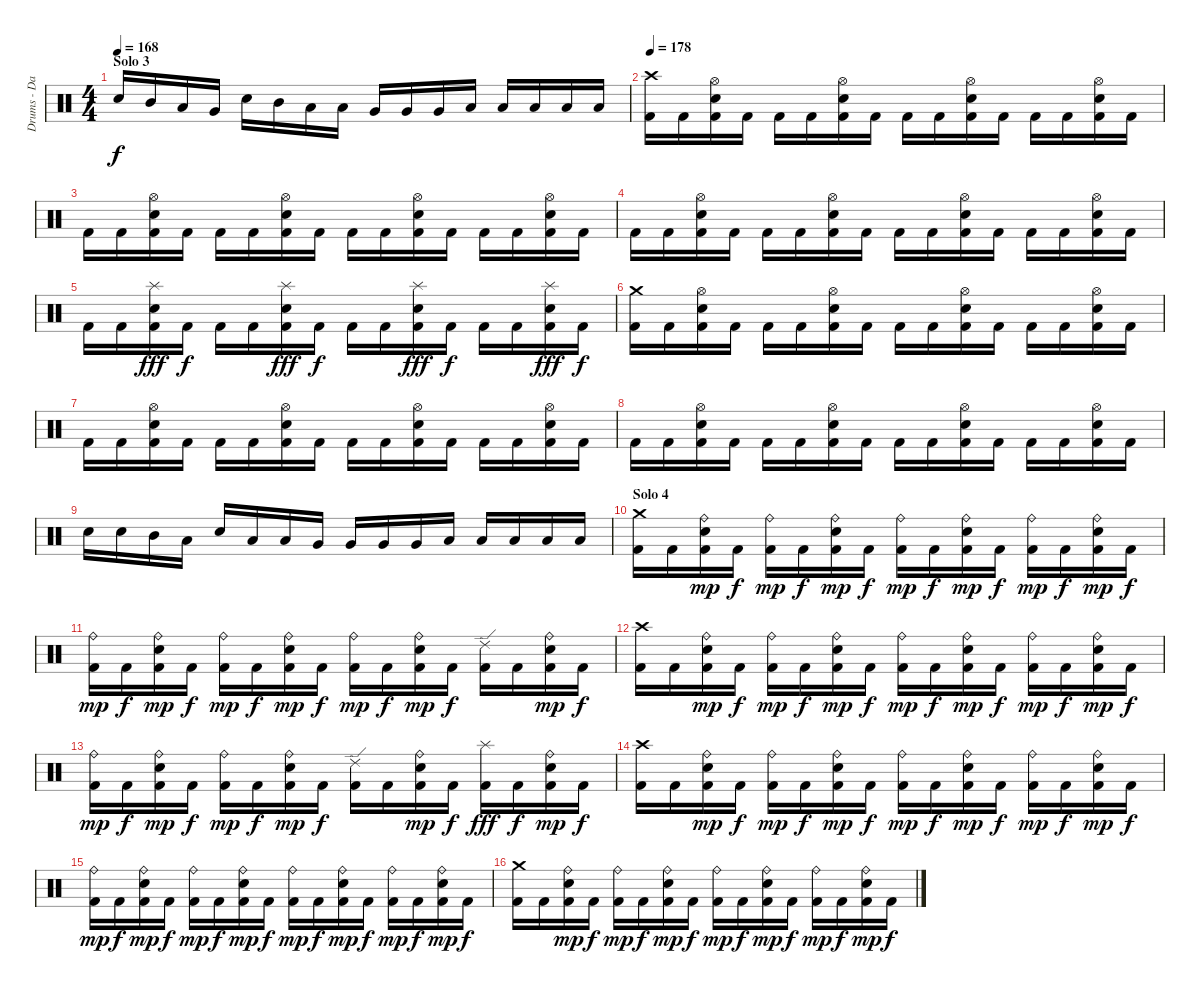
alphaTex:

\track ("Drums - Daniel Zimmermann" "Drums - Da") {instrument percussion}
\staff {score}
\articulation defaults
\ts (4 4)
\section ("" "Solo 3")
\tempo 168
\clef neutral
\ks c "Electric Snare (hit)".16{dy f} "Mid Tom (hit)".16 "Low Tom (hit)".16 "Very Low Tom (hit)".16 "Electric Snare (hit)".16 "Mid Tom (hit)".16 "Low Tom (hit)".16 "Low Tom (hit)".16 "Very Low Tom (hit)".16 "Very Low Tom (hit)".16 "Very Low Tom (hit)".16 "Low Floor Tom (hit)".16 "Low Floor Tom (hit)".16 "Low Floor Tom (hit)".16 "Low Floor Tom (hit)".16 "Low Floor Tom (hit)".16
|
\tempo 178
("Kick (hit) 2" "Crash high (hit)").16 "Kick (hit) 2".16 ("Kick (hit) 2" "Electric Snare (hit)" "Hi-Hat (open)").16 "Kick (hit) 2".16 "Kick (hit) 2".16 "Kick (hit) 2".16 ("Kick (hit) 2" "Electric Snare (hit)" "Hi-Hat (open)").16 "Kick (hit) 2".16 "Kick (hit) 2".16 "Kick (hit) 2".16 ("Kick (hit) 2" "Electric Snare (hit)" "Hi-Hat (open)").16 "Kick (hit) 2".16 "Kick (hit) 2".16 "Kick (hit) 2".16 ("Kick (hit) 2" "Electric Snare (hit)" "Hi-Hat (open)").16 "Kick (hit) 2".16 |
"Kick (hit) 2".16 "Kick (hit) 2".16 ("Kick (hit) 2" "Electric Snare (hit)" "Hi-Hat (open)").16 "Kick (hit) 2".16 "Kick (hit) 2".16 "Kick (hit) 2".16 ("Kick (hit) 2" "Electric Snare (hit)" "Hi-Hat (open)").16 "Kick (hit) 2".16 "Kick (hit) 2".16 "Kick (hit) 2".16 ("Kick (hit) 2" "Electric Snare (hit)" "Hi-Hat (open)").16 "Kick (hit) 2".16 "Kick (hit) 2".16 "Kick (hit) 2".16 ("Kick (hit) 2" "Electric Snare (hit)" "Hi-Hat (open)").16 "Kick (hit) 2".16 |
"Kick (hit) 2".16 "Kick (hit) 2".16 ("Kick (hit) 2" "Electric Snare (hit)" "Hi-Hat (open)").16 "Kick (hit) 2".16 "Kick (hit) 2".16 "Kick (hit) 2".16 ("Kick (hit) 2" "Electric Snare (hit)" "Hi-Hat (open)").16 "Kick (hit) 2".16 "Kick (hit) 2".16 "Kick (hit) 2".16 ("Kick (hit) 2" "Electric Snare (hit)" "Hi-Hat (open)").16 "Kick (hit) 2".16 "Kick (hit) 2".16 "Kick (hit) 2".16 ("Kick (hit) 2" "Electric Snare (hit)" "Hi-Hat (open)").16 "Kick (hit) 2".16 |
"Kick (hit) 2".16 "Kick (hit) 2".16 ("Kick (hit) 2" "Electric Snare (hit)" "Splash (hit)").16{dy fff} "Kick (hit) 2".16{dy f} "Kick (hit) 2".16 "Kick (hit) 2".16 ("Kick (hit) 2" "Electric Snare (hit)" "Splash (hit)").16{dy fff} "Kick (hit) 2".16{dy f} "Kick (hit) 2".16 "Kick (hit) 2".16 ("Kick (hit) 2" "Electric Snare (hit)" "Splash (hit)").16{dy fff} "Kick (hit) 2".16{dy f} "Kick (hit) 2".16 "Kick (hit) 2".16 ("Kick (hit) 2" "Electric Snare (hit)" "Splash (hit)").16{dy fff} "Kick (hit) 2".16{dy f} |
("Kick (hit) 2" "Crash medium (hit)").16 "Kick (hit) 2".16 ("Kick (hit) 2" "Electric Snare (hit)" "Hi-Hat (open)").16 "Kick (hit) 2".16 "Kick (hit) 2".16 "Kick (hit) 2".16 ("Kick (hit) 2" "Electric Snare (hit)" "Hi-Hat (open)").16 "Kick (hit) 2".16 "Kick (hit) 2".16 "Kick (hit) 2".16 ("Kick (hit) 2" "Electric Snare (hit)" "Hi-Hat (open)").16 "Kick (hit) 2".16 "Kick (hit) 2".16 "Kick (hit) 2".16 ("Kick (hit) 2" "Electric Snare (hit)" "Hi-Hat (open)").16 "Kick (hit) 2".16 |
"Kick (hit) 2".16 "Kick (hit) 2".16 ("Kick (hit) 2" "Electric Snare (hit)" "Hi-Hat (open)").16 "Kick (hit) 2".16 "Kick (hit) 2".16 "Kick (hit) 2".16 ("Kick (hit) 2" "Electric Snare (hit)" "Hi-Hat (open)").16 "Kick (hit) 2".16 "Kick (hit) 2".16 "Kick (hit) 2".16 ("Kick (hit) 2" "Electric Snare (hit)" "Hi-Hat (open)").16 "Kick (hit) 2".16 "Kick (hit) 2".16 "Kick (hit) 2".16 ("Kick (hit) 2" "Electric Snare (hit)" "Hi-Hat (open)").16 "Kick (hit) 2".16 |
"Kick (hit) 2".16 "Kick (hit) 2".16 ("Kick (hit) 2" "Electric Snare (hit)" "Hi-Hat (open)").16 "Kick (hit) 2".16 "Kick (hit) 2".16 "Kick (hit) 2".16 ("Kick (hit) 2" "Electric Snare (hit)" "Hi-Hat (open)").16 "Kick (hit) 2".16 "Kick (hit) 2".16 "Kick (hit) 2".16 ("Kick (hit) 2" "Electric Snare (hit)" "Hi-Hat (open)").16 "Kick (hit) 2".16 "Kick (hit) 2".16 "Kick (hit) 2".16 ("Kick (hit) 2" "Electric Snare (hit)" "Hi-Hat (open)").16 "Kick (hit) 2".16 |
"Electric Snare (hit)".16 "Electric Snare (hit)".16 "Mid Tom (hit)".16 "Low Tom (hit)".16 "Electric Snare (hit)".16 "Low Tom (hit)".16 "Low Tom (hit)".16 "Very Low Tom (hit)".16 "Very Low Tom (hit)".16 "Very Low Tom (hit)".16 "Very Low Tom (hit)".16 "Low Floor Tom (hit)".16 "Low Floor Tom (hit)".16 "Low Floor Tom (hit)".16 "Low Floor Tom (hit)".16 "Low Floor Tom (hit)".16 |
\section ("" "Solo 4")
("Kick (hit) 2" "Crash medium (hit)").16 "Kick (hit) 2".16 ("Kick (hit) 2" "Electric Snare (hit)" "Ride (bell)").16{dy mp} "Kick (hit) 2".16{dy f} ("Kick (hit) 2" "Ride (bell)").16{dy mp} "Kick (hit) 2".16{dy f} ("Kick (hit) 2" "Electric Snare (hit)" "Ride (bell)").16{dy mp} "Kick (hit) 2".16{dy f} ("Kick (hit) 2" "Ride (bell)").16{dy mp} "Kick (hit) 2".16{dy f} ("Kick (hit) 2" "Electric Snare (hit)" "Ride (bell)").16{dy mp} "Kick (hit) 2".16{dy f} ("Kick (hit) 2" "Ride (bell)").16{dy mp} "Kick (hit) 2".16{dy f} ("Kick (hit) 2" "Electric Snare (hit)" "Ride (bell)").16{dy mp} "Kick (hit) 2".16{dy f} |
("Kick (hit) 2" "Ride (bell)").16{dy mp} "Kick (hit) 2".16{dy f} ("Kick (hit) 2" "Electric Snare (hit)" "Ride (bell)").16{dy mp} "Kick (hit) 2".16{dy f} ("Kick (hit) 2" "Ride (bell)").16{dy mp} "Kick (hit) 2".16{dy f} ("Kick (hit) 2" "Electric Snare (hit)" "Ride (bell)").16{dy mp} "Kick (hit) 2".16{dy f} ("Kick (hit) 2" "Ride (bell)").16{dy mp} "Kick (hit) 2".16{dy f} ("Kick (hit) 2" "Electric Snare (hit)" "Ride (bell)").16{dy mp} "Kick (hit) 2".16{dy f} ("Kick (hit) 2" "Ride (edge) 2").16 "Kick (hit) 2".16 ("Kick (hit) 2" "Electric Snare (hit)" "Ride (bell)").16{dy mp} "Kick (hit) 2".16{dy f} |
("Kick (hit) 2" "Crash high (hit)").16 "Kick (hit) 2".16 ("Kick (hit) 2" "Electric Snare (hit)" "Ride (bell)").16{dy mp} "Kick (hit) 2".16{dy f} ("Kick (hit) 2" "Ride (bell)").16{dy mp} "Kick (hit) 2".16{dy f} ("Kick (hit) 2" "Electric Snare (hit)" "Ride (bell)").16{dy mp} "Kick (hit) 2".16{dy f} ("Kick (hit) 2" "Ride (bell)").16{dy mp} "Kick (hit) 2".16{dy f} ("Kick (hit) 2" "Electric Snare (hit)" "Ride (bell)").16{dy mp} "Kick (hit) 2".16{dy f} ("Kick (hit) 2" "Ride (bell)").16{dy mp} "Kick (hit) 2".16{dy f} ("Kick (hit) 2" "Electric Snare (hit)" "Ride (bell)").16{dy mp} "Kick (hit) 2".16{dy f} |
("Kick (hit) 2" "Ride (bell)").16{dy mp} "Kick (hit) 2".16{dy f} ("Kick (hit) 2" "Electric Snare (hit)" "Ride (bell)").16{dy mp} "Kick (hit) 2".16{dy f} ("Kick (hit) 2" "Ride (bell)").16{dy mp} "Kick (hit) 2".16{dy f} ("Kick (hit) 2" "Electric Snare (hit)" "Ride (bell)").16{dy mp} "Kick (hit) 2".16{dy f} ("Kick (hit) 2" "Ride (edge) 2").16 "Kick (hit) 2".16 ("Kick (hit) 2" "Electric Snare (hit)" "Ride (bell)").16{dy mp} "Kick (hit) 2".16{dy f} ("Kick (hit) 2" "Splash (hit)").16{dy fff} "Kick (hit) 2".16{dy f} ("Kick (hit) 2" "Electric Snare (hit)" "Ride (bell)").16{dy mp} "Kick (hit) 2".16{dy f} |
("Kick (hit) 2" "Crash high (hit)").16 "Kick (hit) 2".16 ("Kick (hit) 2" "Electric Snare (hit)" "Ride (bell)").16{dy mp} "Kick (hit) 2".16{dy f} ("Kick (hit) 2" "Ride (bell)").16{dy mp} "Kick (hit) 2".16{dy f} ("Kick (hit) 2" "Electric Snare (hit)" "Ride (bell)").16{dy mp} "Kick (hit) 2".16{dy f} ("Kick (hit) 2" "Ride (bell)").16{dy mp} "Kick (hit) 2".16{dy f} ("Kick (hit) 2" "Electric Snare (hit)" "Ride (bell)").16{dy mp} "Kick (hit) 2".16{dy f} ("Kick (hit) 2" "Ride (bell)").16{dy mp} "Kick (hit) 2".16{dy f} ("Kick (hit) 2" "Electric Snare (hit)" "Ride (bell)").16{dy mp} "Kick (hit) 2".16{dy f} |
("Kick (hit) 2" "Ride (bell)").16{dy mp} "Kick (hit) 2".16{dy f} ("Kick (hit) 2" "Electric Snare (hit)" "Ride (bell)").16{dy mp} "Kick (hit) 2".16{dy f} ("Kick (hit) 2" "Ride (bell)").16{dy mp} "Kick (hit) 2".16{dy f} ("Kick (hit) 2" "Electric Snare (hit)" "Ride (bell)").16{dy mp} "Kick (hit) 2".16{dy f} ("Kick (hit) 2" "Ride (bell)").16{dy mp} "Kick (hit) 2".16{dy f} ("Kick (hit) 2" "Electric Snare (hit)" "Ride (bell)").16{dy mp} "Kick (hit) 2".16{dy f} ("Kick (hit) 2" "Ride (bell)").16{dy mp} "Kick (hit) 2".16{dy f} ("Kick (hit) 2" "Electric Snare (hit)" "Ride (bell)").16{dy mp} "Kick (hit) 2".16{dy f} |
("Kick (hit) 2" "Crash medium (hit)").16 "Kick (hit) 2".16 ("Kick (hit) 2" "Electric Snare (hit)" "Ride (bell)").16{dy mp} "Kick (hit) 2".16{dy f} ("Kick (hit) 2" "Ride (bell)").16{dy mp} "Kick (hit) 2".16{dy f} ("Kick (hit) 2" "Electric Snare (hit)" "Ride (bell)").16{dy mp} "Kick (hit) 2".16{dy f} ("Kick (hit) 2" "Ride (bell)").16{dy mp} "Kick (hit) 2".16{dy f} ("Kick (hit) 2" "Electric Snare (hit)" "Ride (bell)").16{dy mp} "Kick (hit) 2".16{dy f} ("Kick (hit) 2" "Ride (bell)").16{dy mp} "Kick (hit) 2".16{dy f} ("Kick (hit) 2" "Electric Snare (hit)" "Ride (bell)").16{dy mp} "Kick (hit) 2".16{dy f}
